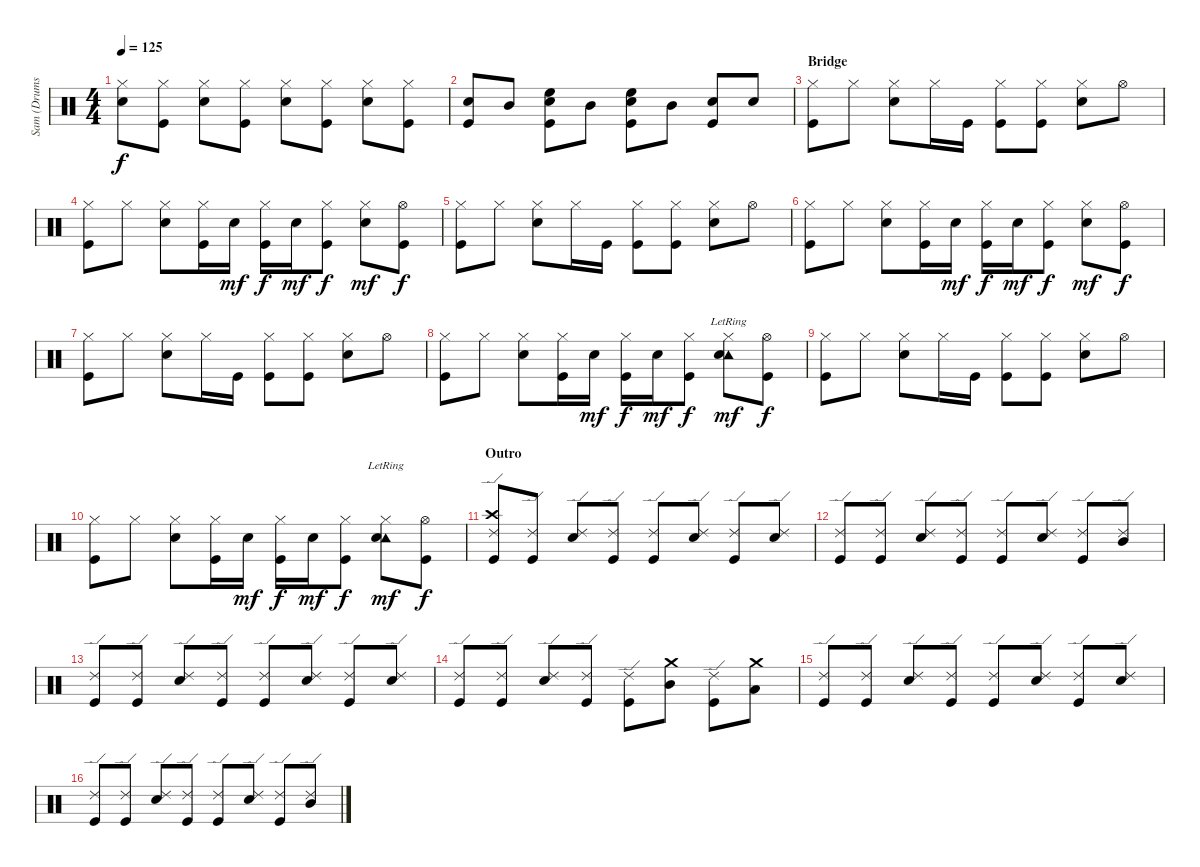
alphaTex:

\track ("Sam (Drums)" "Sam (Drums") {instrument percussion}
\staff {score}
\articulation defaults
\ts (4 4)
\tempo 125
\clef neutral
\ks c
("Hi-Hat (closed)" "Snare (hit) 2").8{dy f} ("Hi-Hat (closed)" "Kick (hit)").8 ("Hi-Hat (closed)" "Snare (hit) 2").8 ("Hi-Hat (closed)" "Kick (hit)").8 ("Hi-Hat (closed)" "Snare (hit) 2").8 ("Hi-Hat (closed)" "Kick (hit)").8 ("Hi-Hat (closed)" "Snare (hit) 2").8 ("Hi-Hat (closed)" "Kick (hit)").8 |
("Snare (hit) 2" "Kick (hit)").8 "Mid Tom (hit)".8 ("High Floor Tom (hit)" "Snare (hit) 2" "Kick (hit)").8 "Mid Tom (hit)".8 ("High Floor Tom (hit)" "Snare (hit) 2" "Kick (hit)").8 "Mid Tom (hit)".8 ("Snare (hit) 2" "Kick (hit)").8 "Snare (hit) 2".8 |
\section ("" "Bridge")
("Hi-Hat (closed)" "Kick (hit)").8 "Hi-Hat (closed)".8 ("Hi-Hat (closed)" "Snare (hit) 2").8 "Hi-Hat (closed)".16 "Kick (hit)".16 ("Hi-Hat (closed)" "Kick (hit)").8 ("Hi-Hat (closed)" "Kick (hit)").8 ("Hi-Hat (closed)" "Snare (hit) 2").8 "Hi-Hat (open)".8 |
("Hi-Hat (closed)" "Kick (hit)").8 "Hi-Hat (closed)".8 ("Hi-Hat (closed)" "Snare (hit) 2").8 ("Hi-Hat (closed)" "Kick (hit)").16 "Snare (hit) 2".16{dy mf} ("Hi-Hat (closed)" "Kick (hit)").16{dy f} "Snare (hit) 2".16{dy mf} ("Hi-Hat (closed)" "Kick (hit)").8{dy f} ("Hi-Hat (closed)" "Snare (hit) 2").8{dy mf} ("Hi-Hat (open)" "Kick (hit)").8{dy f} |
("Hi-Hat (closed)" "Kick (hit)").8 "Hi-Hat (closed)".8 ("Hi-Hat (closed)" "Snare (hit) 2").8 "Hi-Hat (closed)".16 "Kick (hit)".16 ("Hi-Hat (closed)" "Kick (hit)").8 ("Hi-Hat (closed)" "Kick (hit)").8 ("Hi-Hat (closed)" "Snare (hit) 2").8 "Hi-Hat (open)".8 |
("Hi-Hat (closed)" "Kick (hit)").8 "Hi-Hat (closed)".8 ("Hi-Hat (closed)" "Snare (hit) 2").8 ("Hi-Hat (closed)" "Kick (hit)").16 "Snare (hit) 2".16{dy mf} ("Hi-Hat (closed)" "Kick (hit)").16{dy f} "Snare (hit) 2".16{dy mf} ("Hi-Hat (closed)" "Kick (hit)").8{dy f} ("Hi-Hat (closed)" "Snare (hit) 2").8{dy mf} ("Hi-Hat (open)" "Kick (hit)").8{dy f} |
("Hi-Hat (closed)" "Kick (hit)").8 "Hi-Hat (closed)".8 ("Hi-Hat (closed)" "Snare (hit) 2").8 "Hi-Hat (closed)".16 "Kick (hit)".16 ("Hi-Hat (closed)" "Kick (hit)").8 ("Hi-Hat (closed)" "Kick (hit)").8 ("Hi-Hat (closed)" "Snare (hit) 2").8 "Hi-Hat (open)".8 |
("Hi-Hat (closed)" "Kick (hit)").8 "Hi-Hat (closed)".8 ("Hi-Hat (closed)" "Snare (hit) 2").8 ("Hi-Hat (closed)" "Kick (hit)").16 "Snare (hit) 2".16{dy mf} ("Hi-Hat (closed)" "Kick (hit)").16{dy f} "Snare (hit) 2".16{dy mf} ("Hi-Hat (closed)" "Kick (hit)").8{dy f} ("Hi-Hat (closed)" "Tambourine (hit)"{lr} "Snare (hit) 2").8{dy mf} ("Hi-Hat (open)" "Kick (hit)").8{dy f} |
("Hi-Hat (closed)" "Kick (hit)").8 "Hi-Hat (closed)".8 ("Hi-Hat (closed)" "Snare (hit) 2").8 "Hi-Hat (closed)".16 "Kick (hit)".16 ("Hi-Hat (closed)" "Kick (hit)").8 ("Hi-Hat (closed)" "Kick (hit)").8 ("Hi-Hat (closed)" "Snare (hit) 2").8 "Hi-Hat (open)".8 |
("Hi-Hat (closed)" "Kick (hit)").8 "Hi-Hat (closed)".8 ("Hi-Hat (closed)" "Snare (hit) 2").8 ("Hi-Hat (closed)" "Kick (hit)").16 "Snare (hit) 2".16{dy mf} ("Hi-Hat (closed)" "Kick (hit)").16{dy f} "Snare (hit) 2".16{dy mf} ("Hi-Hat (closed)" "Kick (hit)").8{dy f} ("Hi-Hat (closed)" "Tambourine (hit)"{lr} "Snare (hit) 2").8{dy mf} ("Hi-Hat (open)" "Kick (hit)").8{dy f} |
\section ("" "Outro")
("Crash high (hit)" "Ride (edge) 2" "Kick (hit)").8 ("Ride (edge) 2" "Kick (hit)").8 ("Ride (edge) 2" "Snare (hit) 2").8 ("Ride (edge) 2" "Kick (hit)").8 ("Ride (edge) 2" "Kick (hit)").8 ("Ride (edge) 2" "Snare (hit) 2").8 ("Ride (edge) 2" "Kick (hit)").8 ("Ride (edge) 2" "Snare (hit) 2").8 |
("Ride (edge) 2" "Kick (hit)").8 ("Ride (edge) 2" "Kick (hit)").8 ("Ride (edge) 2" "Snare (hit) 2").8 ("Ride (edge) 2" "Kick (hit)").8 ("Ride (edge) 2" "Kick (hit)").8 ("Ride (edge) 2" "Snare (hit) 2").8 ("Ride (edge) 2" "Kick (hit)").8 ("Ride (edge) 2" "Mid Tom (hit)").8 |
("Ride (edge) 2" "Kick (hit)").8 ("Ride (edge) 2" "Kick (hit)").8 ("Ride (edge) 2" "Snare (hit) 2").8 ("Ride (edge) 2" "Kick (hit)").8 ("Ride (edge) 2" "Kick (hit)").8 ("Ride (edge) 2" "Snare (hit) 2").8 ("Ride (edge) 2" "Kick (hit)").8 ("Ride (edge) 2" "Snare (hit) 2").8 |
("Ride (edge) 2" "Kick (hit)").8 ("Ride (edge) 2" "Kick (hit)").8 ("Ride (edge) 2" "Snare (hit) 2").8 ("Ride (edge) 2" "Kick (hit)").8 ("Ride (edge) 2" "Kick (hit)").8 ("Crash medium (hit)" "Mid Tom (hit)").8 ("Ride (edge) 2" "Kick (hit)").8 ("Crash medium (hit)" "Low Tom (hit)").8 |
("Ride (edge) 2" "Kick (hit)").8 ("Ride (edge) 2" "Kick (hit)").8 ("Ride (edge) 2" "Snare (hit) 2").8 ("Ride (edge) 2" "Kick (hit)").8 ("Ride (edge) 2" "Kick (hit)").8 ("Ride (edge) 2" "Snare (hit) 2").8 ("Ride (edge) 2" "Kick (hit)").8 ("Ride (edge) 2" "Snare (hit) 2").8 |
("Ride (edge) 2" "Kick (hit)").8 ("Ride (edge) 2" "Kick (hit)").8 ("Ride (edge) 2" "Snare (hit) 2").8 ("Ride (edge) 2" "Kick (hit)").8 ("Ride (edge) 2" "Kick (hit)").8 ("Ride (edge) 2" "Snare (hit) 2").8 ("Ride (edge) 2" "Kick (hit)").8 ("Ride (edge) 2" "Mid Tom (hit)").8
